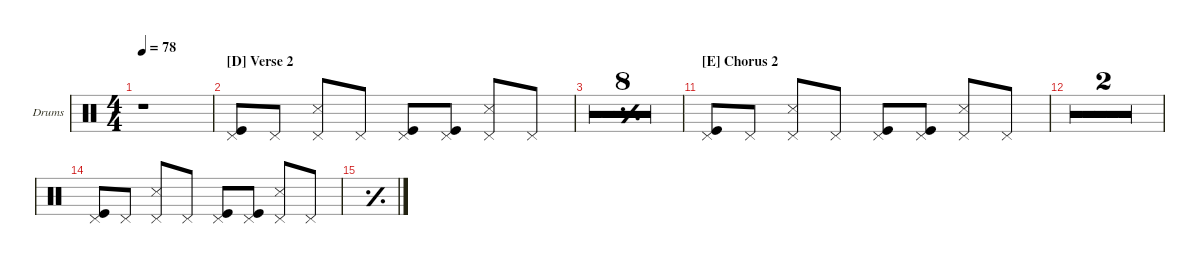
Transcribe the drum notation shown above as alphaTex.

\defaultSystemsLayout 4
\hideDynamics
\bracketExtendMode nobrackets
\firstSystemTrackNameOrientation horizontal
\otherSystemsTrackNameOrientation horizontal
\track ("Drums" "Drums") {multiBarRest instrument percussion}
\staff {score}
\articulation defaults
\ts (4 4)
\tempo 78
\clef neutral
\ks aminor
r.1{dy f} |
\section ("D" "Verse 2")
("Kick (hit)" "Pedal Hi-Hat (hit)").8 "Pedal Hi-Hat (hit)".8 ("Snare (side stick) 3" "Pedal Hi-Hat (hit)").8 "Pedal Hi-Hat (hit)".8 ("Kick (hit)" "Pedal Hi-Hat (hit)").8 ("Kick (hit)" "Pedal Hi-Hat (hit)").8 ("Snare (side stick) 3" "Pedal Hi-Hat (hit)").8 "Pedal Hi-Hat (hit)".8 |
\simile simple
|
\simile firstofdouble
|
\simile secondofdouble
|
\simile firstofdouble
|
\simile secondofdouble
|
\simile firstofdouble
|
\simile secondofdouble
|
\simile simple
|
\section ("E" "Chorus 2")
\simile none
("Kick (hit)" "Pedal Hi-Hat (hit)").8 "Pedal Hi-Hat (hit)".8 ("Snare (side stick) 3" "Pedal Hi-Hat (hit)").8 "Pedal Hi-Hat (hit)".8 ("Kick (hit)" "Pedal Hi-Hat (hit)").8 ("Kick (hit)" "Pedal Hi-Hat (hit)").8 ("Snare (side stick) 3" "Pedal Hi-Hat (hit)").8 "Pedal Hi-Hat (hit)".8 |
|
|
("Kick (hit)" "Pedal Hi-Hat (hit)").8 "Pedal Hi-Hat (hit)".8 ("Snare (side stick) 3" "Pedal Hi-Hat (hit)").8 "Pedal Hi-Hat (hit)".8 ("Kick (hit)" "Pedal Hi-Hat (hit)").8 ("Kick (hit)" "Pedal Hi-Hat (hit)").8 ("Snare (side stick) 3" "Pedal Hi-Hat (hit)").8 "Pedal Hi-Hat (hit)".8 |
\simile simple
